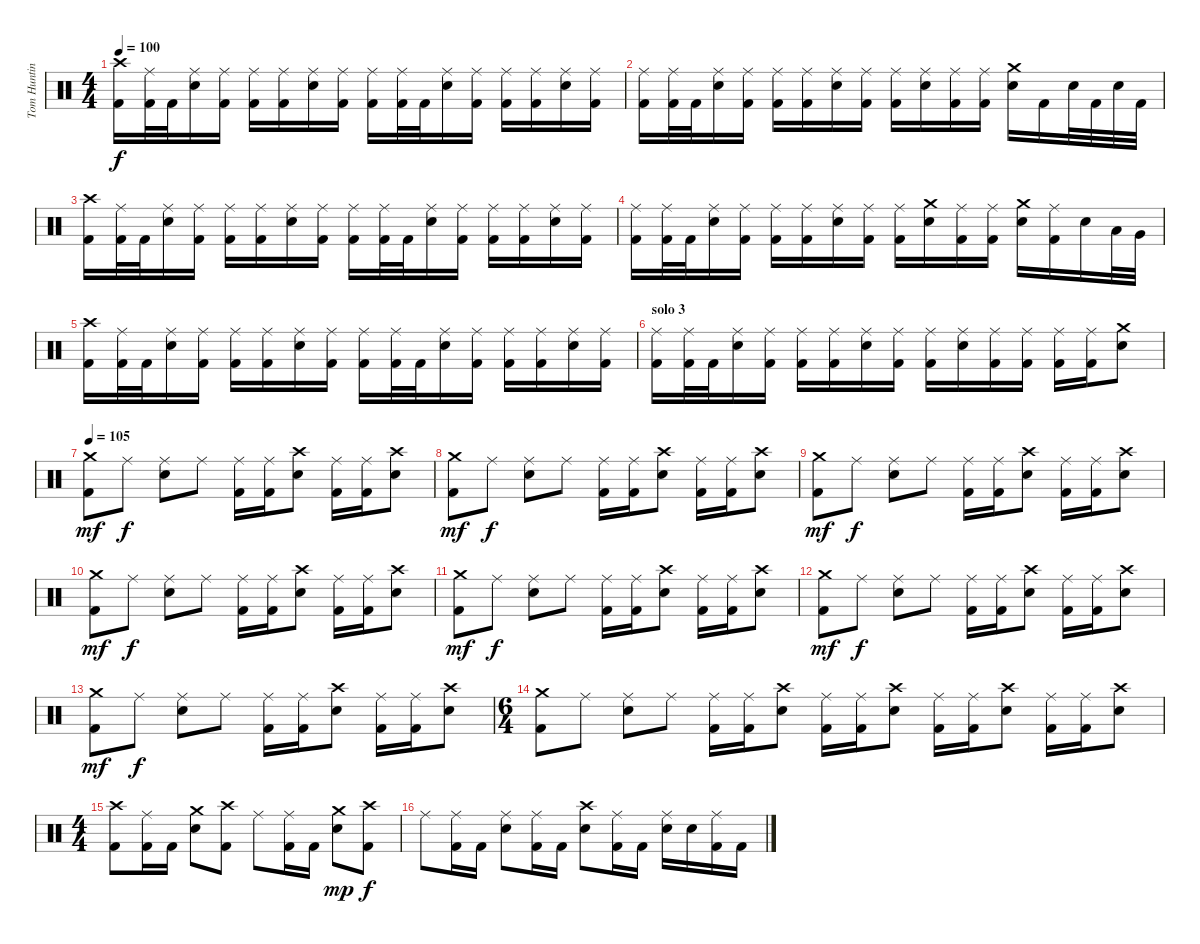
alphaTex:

\track ("Tom Hunting" "Tom Huntin") {instrument percussion}
\staff {score}
\articulation defaults
\ts (4 4)
\tempo 100
\clef neutral
\ks c
("Kick (hit) 2" "Crash high (hit)").16{dy f} ("Kick (hit) 2" "Ride (middle)").32 "Kick (hit) 2".32 ("Ride (middle)" "Snare (hit) 2").16 ("Kick (hit) 2" "Ride (middle)").16 ("Kick (hit) 2" "Ride (middle)").16 ("Kick (hit) 2" "Ride (middle)").16 ("Ride (middle)" "Snare (hit) 2").16 ("Kick (hit) 2" "Ride (middle)").16 ("Kick (hit) 2" "Ride (middle)").16 ("Kick (hit) 2" "Ride (middle)").32 "Kick (hit) 2".32 ("Ride (middle)" "Snare (hit) 2").16 ("Kick (hit) 2" "Ride (middle)").16 ("Kick (hit) 2" "Ride (middle)").16 ("Kick (hit) 2" "Ride (middle)").16 ("Ride (middle)" "Snare (hit) 2").16 ("Kick (hit) 2" "Ride (middle)").16 |
("Kick (hit) 2" "Ride (middle)").16 ("Kick (hit) 2" "Ride (middle)").32 "Kick (hit) 2".32 ("Ride (middle)" "Snare (hit) 2").16 ("Kick (hit) 2" "Ride (middle)").16 ("Kick (hit) 2" "Ride (middle)").16 ("Kick (hit) 2" "Ride (middle)").16 ("Ride (middle)" "Snare (hit) 2").16 ("Kick (hit) 2" "Ride (middle)").16 ("Kick (hit) 2" "Ride (middle)").16 ("Ride (middle)" "Snare (hit) 2").16 ("Kick (hit) 2" "Ride (middle)").16 ("Kick (hit) 2" "Ride (middle)").16 ("Crash medium (hit)" "Snare (hit) 2").16 "Kick (hit) 2".16 "Snare (hit) 2".32 "Kick (hit) 2".32 "Snare (hit) 2".32 "Kick (hit) 2".32 |
("Kick (hit) 2" "Crash high (hit)").16 ("Kick (hit) 2" "Ride (middle)").32 "Kick (hit) 2".32 ("Ride (middle)" "Snare (hit) 2").16 ("Kick (hit) 2" "Ride (middle)").16 ("Kick (hit) 2" "Ride (middle)").16 ("Kick (hit) 2" "Ride (middle)").16 ("Ride (middle)" "Snare (hit) 2").16 ("Kick (hit) 2" "Ride (middle)").16 ("Kick (hit) 2" "Ride (middle)").16 ("Kick (hit) 2" "Ride (middle)").32 "Kick (hit) 2".32 ("Ride (middle)" "Snare (hit) 2").16 ("Kick (hit) 2" "Ride (middle)").16 ("Kick (hit) 2" "Ride (middle)").16 ("Kick (hit) 2" "Ride (middle)").16 ("Ride (middle)" "Snare (hit) 2").16 ("Kick (hit) 2" "Ride (middle)").16 |
("Kick (hit) 2" "Ride (middle)").16 ("Kick (hit) 2" "Ride (middle)").32 "Kick (hit) 2".32 ("Ride (middle)" "Snare (hit) 2").16 ("Kick (hit) 2" "Ride (middle)").16 ("Kick (hit) 2" "Ride (middle)").16 ("Kick (hit) 2" "Ride (middle)").16 ("Ride (middle)" "Snare (hit) 2").16 ("Kick (hit) 2" "Ride (middle)").16 ("Kick (hit) 2" "Ride (middle)").16 ("Crash medium (hit)" "Snare (hit) 2").16 ("Kick (hit) 2" "Ride (middle)").16 ("Kick (hit) 2" "Ride (middle)").16 ("Crash medium (hit)" "Snare (hit) 2").16 ("Kick (hit) 2" "Ride (middle)").16 "Snare (hit) 2".16 "Low Tom (hit)".32 "Very Low Tom (hit)".32 |
("Kick (hit) 2" "Crash high (hit)").16 ("Kick (hit) 2" "Ride (middle)").32 "Kick (hit) 2".32 ("Ride (middle)" "Snare (hit) 2").16 ("Kick (hit) 2" "Ride (middle)").16 ("Kick (hit) 2" "Ride (middle)").16 ("Kick (hit) 2" "Ride (middle)").16 ("Ride (middle)" "Snare (hit) 2").16 ("Kick (hit) 2" "Ride (middle)").16 ("Kick (hit) 2" "Ride (middle)").16 ("Kick (hit) 2" "Ride (middle)").32 "Kick (hit) 2".32 ("Ride (middle)" "Snare (hit) 2").16 ("Kick (hit) 2" "Ride (middle)").16 ("Kick (hit) 2" "Ride (middle)").16 ("Kick (hit) 2" "Ride (middle)").16 ("Ride (middle)" "Snare (hit) 2").16 ("Kick (hit) 2" "Ride (middle)").16 |
\section ("" "solo 3")
("Kick (hit) 2" "Ride (middle)").16 ("Kick (hit) 2" "Ride (middle)").32 "Kick (hit) 2".32 ("Ride (middle)" "Snare (hit) 2").16 ("Kick (hit) 2" "Ride (middle)").16 ("Kick (hit) 2" "Ride (middle)").16 ("Kick (hit) 2" "Ride (middle)").16 ("Ride (middle)" "Snare (hit) 2").16 ("Kick (hit) 2" "Ride (middle)").16 ("Kick (hit) 2" "Ride (middle)").16 ("Ride (middle)" "Snare (hit) 2").16 ("Kick (hit) 2" "Ride (middle)").16 ("Kick (hit) 2" "Ride (middle)").16 ("Kick (hit) 2" "Ride (middle)").16 ("Kick (hit) 2" "Ride (middle)").16 ("Crash medium (hit)" "Snare (hit) 2").8 |
\tempo 105
("Kick (hit) 2" "Crash medium (hit)").8{dy mf} "Ride (middle)".8{dy f} ("Ride (middle)" "Snare (hit) 2").8 "Ride (middle)".8 ("Kick (hit) 2" "Ride (middle)").16 ("Kick (hit) 2" "Ride (middle)").16 ("Crash high (hit)" "Snare (hit) 2").8 ("Kick (hit) 2" "Ride (middle)").16 ("Kick (hit) 2" "Ride (middle)").16 ("Crash high (hit)" "Snare (hit) 2").8 |
("Kick (hit) 2" "Crash medium (hit)").8{dy mf} "Ride (middle)".8{dy f} ("Ride (middle)" "Snare (hit) 2").8 "Ride (middle)".8 ("Kick (hit) 2" "Ride (middle)").16 ("Kick (hit) 2" "Ride (middle)").16 ("Crash high (hit)" "Snare (hit) 2").8 ("Kick (hit) 2" "Ride (middle)").16 ("Kick (hit) 2" "Ride (middle)").16 ("Crash high (hit)" "Snare (hit) 2").8 |
("Kick (hit) 2" "Crash medium (hit)").8{dy mf} "Ride (middle)".8{dy f} ("Ride (middle)" "Snare (hit) 2").8 "Ride (middle)".8 ("Kick (hit) 2" "Ride (middle)").16 ("Kick (hit) 2" "Ride (middle)").16 ("Crash high (hit)" "Snare (hit) 2").8 ("Kick (hit) 2" "Ride (middle)").16 ("Kick (hit) 2" "Ride (middle)").16 ("Crash high (hit)" "Snare (hit) 2").8 |
("Kick (hit) 2" "Crash medium (hit)").8{dy mf} "Ride (middle)".8{dy f} ("Ride (middle)" "Snare (hit) 2").8 "Ride (middle)".8 ("Kick (hit) 2" "Ride (middle)").16 ("Kick (hit) 2" "Ride (middle)").16 ("Crash high (hit)" "Snare (hit) 2").8 ("Kick (hit) 2" "Ride (middle)").16 ("Kick (hit) 2" "Ride (middle)").16 ("Crash high (hit)" "Snare (hit) 2").8 |
("Kick (hit) 2" "Crash medium (hit)").8{dy mf} "Ride (middle)".8{dy f} ("Ride (middle)" "Snare (hit) 2").8 "Ride (middle)".8 ("Kick (hit) 2" "Ride (middle)").16 ("Kick (hit) 2" "Ride (middle)").16 ("Crash high (hit)" "Snare (hit) 2").8 ("Kick (hit) 2" "Ride (middle)").16 ("Kick (hit) 2" "Ride (middle)").16 ("Crash high (hit)" "Snare (hit) 2").8 |
("Kick (hit) 2" "Crash medium (hit)").8{dy mf} "Ride (middle)".8{dy f} ("Ride (middle)" "Snare (hit) 2").8 "Ride (middle)".8 ("Kick (hit) 2" "Ride (middle)").16 ("Kick (hit) 2" "Ride (middle)").16 ("Crash high (hit)" "Snare (hit) 2").8 ("Kick (hit) 2" "Ride (middle)").16 ("Kick (hit) 2" "Ride (middle)").16 ("Crash high (hit)" "Snare (hit) 2").8 |
("Kick (hit) 2" "Crash medium (hit)").8{dy mf} "Ride (middle)".8{dy f} ("Ride (middle)" "Snare (hit) 2").8 "Ride (middle)".8 ("Kick (hit) 2" "Ride (middle)").16 ("Kick (hit) 2" "Ride (middle)").16 ("Crash high (hit)" "Snare (hit) 2").8 ("Kick (hit) 2" "Ride (middle)").16 ("Kick (hit) 2" "Ride (middle)").16 ("Crash high (hit)" "Snare (hit) 2").8 |
\ts (6 4)
("Kick (hit) 2" "Crash medium (hit)").8 "Ride (middle)".8 ("Ride (middle)" "Snare (hit) 2").8 "Ride (middle)".8 ("Kick (hit) 2" "Ride (middle)").16 ("Kick (hit) 2" "Ride (middle)").16 ("Crash high (hit)" "Snare (hit) 2").8 ("Kick (hit) 2" "Ride (middle)").16 ("Kick (hit) 2" "Ride (middle)").16 ("Crash high (hit)" "Snare (hit) 2").8 ("Kick (hit) 2" "Ride (middle)").16 ("Kick (hit) 2" "Ride (middle)").16 ("Crash high (hit)" "Snare (hit) 2").8 ("Kick (hit) 2" "Ride (middle)").16 ("Kick (hit) 2" "Ride (middle)").16 ("Crash high (hit)" "Snare (hit) 2").8 |
\ts (4 4)
("Kick (hit) 2" "Crash high (hit)").8 ("Kick (hit) 2" "Ride (middle)").16 "Kick (hit) 2".16 ("Crash medium (hit)" "Snare (hit) 2").8 ("Kick (hit) 2" "Crash high (hit)").8 "Ride (middle)".8 ("Kick (hit) 2" "Ride (middle)").16 "Kick (hit) 2".16 ("Crash medium (hit)" "Snare (hit) 2").8{dy mp} ("Kick (hit) 2" "Crash high (hit)").8{dy f} |
"Ride (middle)".8 ("Kick (hit) 2" "Ride (middle)").16 "Kick (hit) 2".16 ("Ride (middle)" "Snare (hit) 2").8 ("Kick (hit) 2" "Ride (middle)").16 "Kick (hit) 2".16 ("Crash high (hit)" "Snare (hit) 2").8 ("Kick (hit) 2" "Ride (middle)").16 "Kick (hit) 2".16 ("Ride (middle)" "Snare (hit) 2").16 "Snare (hit) 2".16 ("Kick (hit) 2" "Ride (middle)").16 "Kick (hit) 2".16
